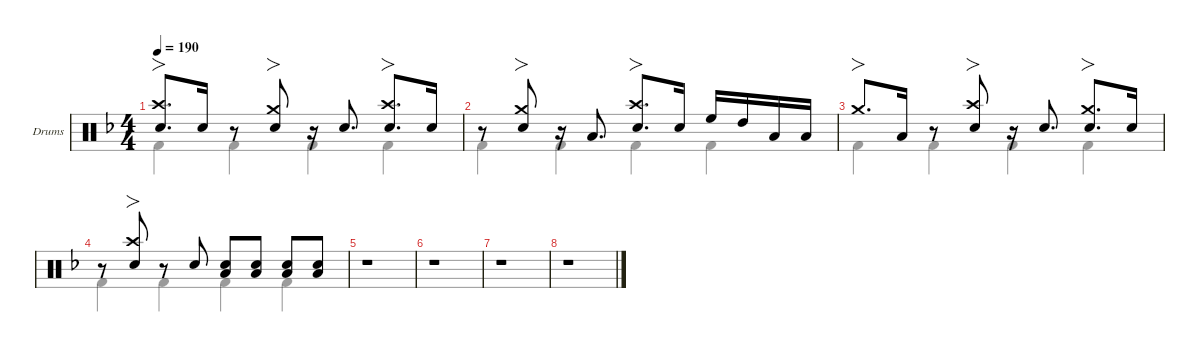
\defaultSystemsLayout 4
\hideDynamics
\bracketExtendMode nobrackets
\firstSystemTrackNameOrientation horizontal
\track ("Drums" "Drums") {defaultSystemsLayout 4 instrument percussion}
\staff {score}
\articulation defaults
\voice
\ts (4 4)
\tempo 190
\clef neutral
\scale
0.267605
\ks dminor
("Snare (hit) 2"{acc forcenatural} "Crash high (hit)"{acc forcenatural}).8{fo d dy f beam Up} "Snare (hit) 2"{acc forcenatural}.16{beam Up beam split} r.8{beam Up beam split} ("Snare (hit) 2"{acc forcenatural} "Crash medium (hit)"{acc forcenatural}).8{fo beam Up} r.16{beam Up} "Snare (hit) 2"{acc forcenatural}.8{d beam Up beam split} ("Snare (hit) 2"{acc forcenatural} "Crash high (hit)"{acc forcenatural}).8{fo d beam Up} "Snare (hit) 2"{acc forcenatural}.16{beam Up} |
\scale
0.244132 r.8{beam Up} ("Snare (hit) 2"{acc forcenatural} "Crash medium (hit)"{acc forcenatural}).8{fo beam Up beam split} r.16{beam Up} "Low Tom (hit)"{acc forcenatural}.8{d beam Up beam split} ("Snare (hit) 2"{acc forcenatural} "Crash high (hit)"{acc forcenatural}).8{fo d beam Up} "Snare (hit) 2"{acc forcenatural}.16{beam Up beam split} "High Floor Tom (hit)"{acc forcenatural}.16{beam Up} "High Tom (hit)"{acc forcenatural}.16{beam Up} "Low Tom (hit)"{acc forcenatural}.16{beam Up} "Low Tom (hit)"{acc forcenatural}.16{beam Up} |
\scale
0.244132 "Crash medium (hit)"{acc forcenatural}.8{fo d beam Up} "Low Tom (hit)"{acc forcenatural}.16{beam Up beam split} r.8{beam Up beam split} ("Snare (hit) 2"{acc forcenatural} "Crash high (hit)"{acc forcenatural}).8{fo beam Up} r.16{beam Up} "Snare (hit) 2"{acc forcenatural}.8{d beam Up beam split} ("Snare (hit) 2"{acc forcenatural} "Crash medium (hit)"{acc forcenatural}).8{fo d beam Up} "Snare (hit) 2"{acc forcenatural}.16{beam Up} |
\scale
0.244132 r.8{beam Up} ("Snare (hit) 2"{acc forcenatural} "Crash high (hit)"{acc forcenatural}).8{fo beam Up} r.8{beam Up} "Snare (hit) 2"{acc forcenatural}.8{beam Up} ("Snare (hit) 2"{acc forcenatural} "Low Tom (hit)"{acc forcenatural}).8{beam Up} ("Snare (hit) 2"{acc forcenatural} "Low Tom (hit)"{acc forcenatural}).8{beam Up} ("Snare (hit) 2"{acc forcenatural} "Low Tom (hit)"{acc forcenatural}).8{beam Up} ("Snare (hit) 2"{acc forcenatural} "Low Tom (hit)"{acc forcenatural}).8{beam Up} |
\scale
0.267605 r.1{beam Up} |
\scale
0.244132 r.1{beam Up} |
\scale
0.244132 r.1{beam Up} |
\scale
0.244132 r.1{beam Up}
\voice
\clef neutral
\ottava regular
\simile none
\scale
0.267605
\ks dminor "Kick (hit) 2"{acc forcenatural}.4{dy f beam Down} "Kick (hit) 2"{acc forcenatural}.4{beam Down} "Kick (hit) 2"{acc forcenatural}.4{beam Down} "Kick (hit) 2"{acc forcenatural}.4{beam Down}
|
\scale
0.244132 "Kick (hit) 2"{acc forcenatural}.4{beam Down} "Kick (hit) 2"{acc forcenatural}.4{beam Down} "Kick (hit) 2"{acc forcenatural}.4{beam Down} "Kick (hit) 2"{acc forcenatural}.4{beam Down} |
\scale
0.244132 "Kick (hit) 2"{acc forcenatural}.4{beam Down} "Kick (hit) 2"{acc forcenatural}.4{beam Down} "Kick (hit) 2"{acc forcenatural}.4{beam Down} "Kick (hit) 2"{acc forcenatural}.4{beam Down} |
\scale
0.244132 "Kick (hit) 2"{acc forcenatural}.4{beam Down} "Kick (hit) 2"{acc forcenatural}.4{beam Down} "Kick (hit) 2"{acc forcenatural}.4{beam Down} "Kick (hit) 2"{acc forcenatural}.4{beam Down} |
\scale
0.267605 r.1{beam Down} |
\scale
0.244132 r.1{beam Down} |
\scale
0.244132 r.1{beam Down} |
\scale
0.244132 r.1{beam Down}
